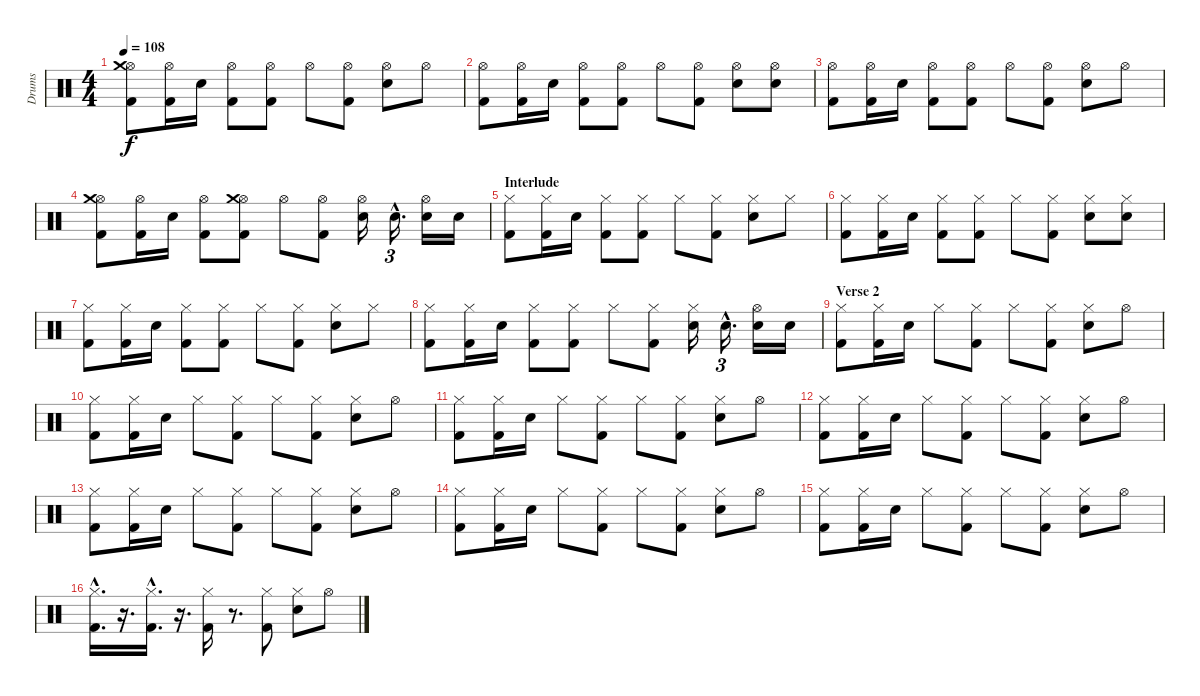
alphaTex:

\track ("Drums" "Drums") {instrument percussion}
\staff {score}
\articulation defaults
\ts (4 4)
\tempo 108
\clef neutral
\ks c
("Hi-Hat (open)" "Kick (hit) 2" "Crash medium (hit)").8{dy f} ("Hi-Hat (open)" "Kick (hit) 2").16 "Electric Snare (hit)".16 ("Hi-Hat (open)" "Kick (hit) 2").8 ("Hi-Hat (open)" "Kick (hit) 2").8 "Hi-Hat (open)".8 ("Hi-Hat (open)" "Kick (hit) 2").8 ("Hi-Hat (open)" "Electric Snare (hit)").8 "Hi-Hat (open)".8 |
("Hi-Hat (open)" "Kick (hit) 2").8 ("Hi-Hat (open)" "Kick (hit) 2").16 "Electric Snare (hit)".16 ("Hi-Hat (open)" "Kick (hit) 2").8 ("Hi-Hat (open)" "Kick (hit) 2").8 "Hi-Hat (open)".8 ("Hi-Hat (open)" "Kick (hit) 2").8 ("Hi-Hat (open)" "Electric Snare (hit)").8 ("Hi-Hat (open)" "Electric Snare (hit)").8 |
("Hi-Hat (open)" "Kick (hit) 2").8 ("Hi-Hat (open)" "Kick (hit) 2").16 "Electric Snare (hit)".16 ("Hi-Hat (open)" "Kick (hit) 2").8 ("Hi-Hat (open)" "Kick (hit) 2").8 "Hi-Hat (open)".8 ("Hi-Hat (open)" "Kick (hit) 2").8 ("Hi-Hat (open)" "Electric Snare (hit)").8 "Hi-Hat (open)".8 |
("Hi-Hat (open)" "Kick (hit) 2" "Crash medium (hit)").8 ("Hi-Hat (open)" "Kick (hit) 2").16 "Electric Snare (hit)".16 ("Hi-Hat (open)" "Kick (hit) 2").8 ("Hi-Hat (open)" "Kick (hit) 2" "Crash medium (hit)").8 "Hi-Hat (open)".8 ("Hi-Hat (open)" "Kick (hit) 2").8 ("Hi-Hat (open)" "Electric Snare (hit)").16 "Electric Snare (hit)"{hac}.16{d tu (3 2)} ("Hi-Hat (open)" "Electric Snare (hit)").16 "Electric Snare (hit)".16 |
\section ("" "Interlude")
("Hi-Hat (closed)" "Kick (hit) 2").8 ("Hi-Hat (closed)" "Kick (hit) 2").16 "Electric Snare (hit)".16 ("Hi-Hat (closed)" "Kick (hit) 2").8 ("Hi-Hat (closed)" "Kick (hit) 2").8 "Hi-Hat (closed)".8 ("Hi-Hat (closed)" "Kick (hit) 2").8 ("Hi-Hat (closed)" "Electric Snare (hit)").8 "Hi-Hat (closed)".8 |
("Hi-Hat (closed)" "Kick (hit) 2").8 ("Hi-Hat (closed)" "Kick (hit) 2").16 "Electric Snare (hit)".16 ("Hi-Hat (closed)" "Kick (hit) 2").8 ("Hi-Hat (closed)" "Kick (hit) 2").8 "Hi-Hat (closed)".8 ("Hi-Hat (closed)" "Kick (hit) 2").8 ("Hi-Hat (closed)" "Electric Snare (hit)").8 ("Hi-Hat (closed)" "Electric Snare (hit)").8 |
("Hi-Hat (closed)" "Kick (hit) 2").8 ("Hi-Hat (closed)" "Kick (hit) 2").16 "Electric Snare (hit)".16 ("Hi-Hat (closed)" "Kick (hit) 2").8 ("Hi-Hat (closed)" "Kick (hit) 2").8 "Hi-Hat (closed)".8 ("Hi-Hat (closed)" "Kick (hit) 2").8 ("Hi-Hat (closed)" "Electric Snare (hit)").8 "Hi-Hat (closed)".8 |
("Hi-Hat (closed)" "Kick (hit) 2").8 ("Hi-Hat (closed)" "Kick (hit) 2").16 "Electric Snare (hit)".16 ("Hi-Hat (closed)" "Kick (hit) 2").8 ("Hi-Hat (closed)" "Kick (hit) 2").8 "Hi-Hat (closed)".8 ("Hi-Hat (closed)" "Kick (hit) 2").8 ("Hi-Hat (closed)" "Electric Snare (hit)").16 "Electric Snare (hit)"{hac}.16{d tu (3 2)} ("Hi-Hat (open)" "Electric Snare (hit)").16 "Electric Snare (hit)".16 |
\section ("" "Verse 2")
("Hi-Hat (closed)" "Kick (hit) 2").8 ("Hi-Hat (closed)" "Kick (hit) 2").16 "Electric Snare (hit)".16 "Hi-Hat (closed)".8 ("Hi-Hat (closed)" "Kick (hit) 2").8 "Hi-Hat (closed)".8 ("Hi-Hat (closed)" "Kick (hit) 2").8 ("Hi-Hat (closed)" "Electric Snare (hit)").8 "Hi-Hat (open)".8 |
("Hi-Hat (closed)" "Kick (hit) 2").8 ("Hi-Hat (closed)" "Kick (hit) 2").16 "Electric Snare (hit)".16 "Hi-Hat (closed)".8 ("Hi-Hat (closed)" "Kick (hit) 2").8 "Hi-Hat (closed)".8 ("Hi-Hat (closed)" "Kick (hit) 2").8 ("Hi-Hat (closed)" "Electric Snare (hit)").8 "Hi-Hat (open)".8 |
("Hi-Hat (closed)" "Kick (hit) 2").8 ("Hi-Hat (closed)" "Kick (hit) 2").16 "Electric Snare (hit)".16 "Hi-Hat (closed)".8 ("Hi-Hat (closed)" "Kick (hit) 2").8 "Hi-Hat (closed)".8 ("Hi-Hat (closed)" "Kick (hit) 2").8 ("Hi-Hat (closed)" "Electric Snare (hit)").8 "Hi-Hat (open)".8 |
("Hi-Hat (closed)" "Kick (hit) 2").8 ("Hi-Hat (closed)" "Kick (hit) 2").16 "Electric Snare (hit)".16 "Hi-Hat (closed)".8 ("Hi-Hat (closed)" "Kick (hit) 2").8 "Hi-Hat (closed)".8 ("Hi-Hat (closed)" "Kick (hit) 2").8 ("Hi-Hat (closed)" "Electric Snare (hit)").8 "Hi-Hat (open)".8 |
("Hi-Hat (closed)" "Kick (hit) 2").8 ("Hi-Hat (closed)" "Kick (hit) 2").16 "Electric Snare (hit)".16 "Hi-Hat (closed)".8 ("Hi-Hat (closed)" "Kick (hit) 2").8 "Hi-Hat (closed)".8 ("Hi-Hat (closed)" "Kick (hit) 2").8 ("Hi-Hat (closed)" "Electric Snare (hit)").8 "Hi-Hat (open)".8 |
("Hi-Hat (closed)" "Kick (hit) 2").8 ("Hi-Hat (closed)" "Kick (hit) 2").16 "Electric Snare (hit)".16 "Hi-Hat (closed)".8 ("Hi-Hat (closed)" "Kick (hit) 2").8 "Hi-Hat (closed)".8 ("Hi-Hat (closed)" "Kick (hit) 2").8 ("Hi-Hat (closed)" "Electric Snare (hit)").8 "Hi-Hat (open)".8 |
("Hi-Hat (closed)" "Kick (hit) 2").8 ("Hi-Hat (closed)" "Kick (hit) 2").16 "Electric Snare (hit)".16 "Hi-Hat (closed)".8 ("Hi-Hat (closed)" "Kick (hit) 2").8 "Hi-Hat (closed)".8 ("Hi-Hat (closed)" "Kick (hit) 2").8 ("Hi-Hat (closed)" "Electric Snare (hit)").8 "Hi-Hat (open)".8 |
("Hi-Hat (closed)"{hac} "Kick (hit) 2"{hac}).16{d} r.16{d} ("Hi-Hat (closed)"{hac} "Kick (hit) 2"{hac}).16{d} r.16{d} ("Hi-Hat (closed)" "Kick (hit) 2").16 r.8{d} ("Hi-Hat (closed)" "Kick (hit) 2").8 ("Hi-Hat (closed)" "Electric Snare (hit)").8 "Hi-Hat (open)".8
